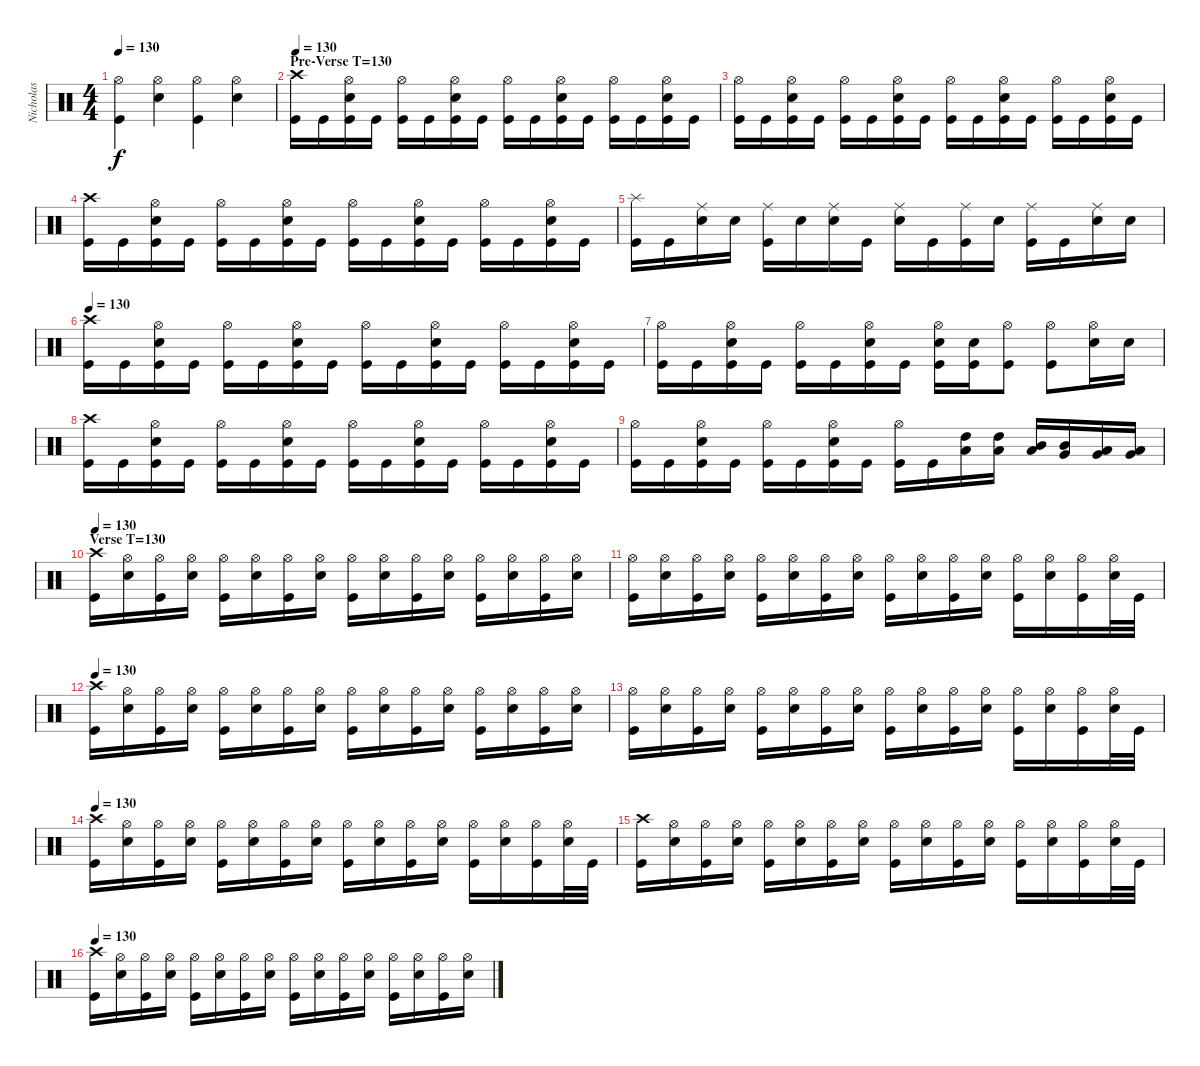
\track ("Nicholas" "Nicholas") {instrument percussion}
\staff {score}
\articulation defaults
\ts (4 4)
\tempo 130
\clef neutral
\ks c
("Hi-Hat (open)" "Kick (hit)").4{dy f} ("Hi-Hat (open)" "Electric Snare (hit)").4 ("Hi-Hat (open)" "Kick (hit)").4 ("Hi-Hat (open)" "Electric Snare (hit)").4 |
\section ("" "Pre-Verse T=130")
\tempo 130
("Crash high (hit)" "Kick (hit)").16 "Kick (hit)".16 ("Hi-Hat (open)" "Electric Snare (hit)" "Kick (hit)").16 "Kick (hit)".16 ("Hi-Hat (open)" "Kick (hit)").16 "Kick (hit)".16 ("Hi-Hat (open)" "Electric Snare (hit)" "Kick (hit)").16 "Kick (hit)".16 ("Hi-Hat (open)" "Kick (hit)").16 "Kick (hit)".16 ("Hi-Hat (open)" "Electric Snare (hit)" "Kick (hit)").16 "Kick (hit)".16 ("Hi-Hat (open)" "Kick (hit)").16 "Kick (hit)".16 ("Hi-Hat (open)" "Electric Snare (hit)" "Kick (hit)").16 "Kick (hit)".16 |
("Hi-Hat (open)" "Kick (hit)").16 "Kick (hit)".16 ("Hi-Hat (open)" "Electric Snare (hit)" "Kick (hit)").16 "Kick (hit)".16 ("Hi-Hat (open)" "Kick (hit)").16 "Kick (hit)".16 ("Hi-Hat (open)" "Electric Snare (hit)" "Kick (hit)").16 "Kick (hit)".16 ("Hi-Hat (open)" "Kick (hit)").16 "Kick (hit)".16 ("Hi-Hat (open)" "Electric Snare (hit)" "Kick (hit)").16 "Kick (hit)".16 ("Hi-Hat (open)" "Kick (hit)").16 "Kick (hit)".16 ("Hi-Hat (open)" "Electric Snare (hit)" "Kick (hit)").16 "Kick (hit)".16 |
("Crash high (hit)" "Kick (hit)").16 "Kick (hit)".16 ("Hi-Hat (open)" "Electric Snare (hit)" "Kick (hit)").16 "Kick (hit)".16 ("Hi-Hat (open)" "Kick (hit)").16 "Kick (hit)".16 ("Hi-Hat (open)" "Electric Snare (hit)" "Kick (hit)").16 "Kick (hit)".16 ("Hi-Hat (open)" "Kick (hit)").16 "Kick (hit)".16 ("Hi-Hat (open)" "Electric Snare (hit)" "Kick (hit)").16 "Kick (hit)".16 ("Hi-Hat (open)" "Kick (hit)").16 "Kick (hit)".16 ("Hi-Hat (open)" "Electric Snare (hit)" "Kick (hit)").16 "Kick (hit)".16 |
("Splash (hit)" "Kick (hit)").16 "Kick (hit)".16 ("Ride (middle)" "Electric Snare (hit)").16 "Electric Snare (hit)".16 ("Ride (middle)" "Kick (hit)").16 "Electric Snare (hit)".16 ("Ride (middle)" "Electric Snare (hit)").16 "Kick (hit)".16 ("Ride (middle)" "Electric Snare (hit)").16 "Kick (hit)".16 ("Ride (middle)" "Kick (hit)").16 "Electric Snare (hit)".16 ("Ride (middle)" "Kick (hit)").16 "Kick (hit)".16 ("Ride (middle)" "Electric Snare (hit)").16 "Electric Snare (hit)".16 |
\tempo 130
("Crash high (hit)" "Kick (hit)").16 "Kick (hit)".16 ("Hi-Hat (open)" "Electric Snare (hit)" "Kick (hit)").16 "Kick (hit)".16 ("Hi-Hat (open)" "Kick (hit)").16 "Kick (hit)".16 ("Hi-Hat (open)" "Electric Snare (hit)" "Kick (hit)").16 "Kick (hit)".16 ("Hi-Hat (open)" "Kick (hit)").16 "Kick (hit)".16 ("Hi-Hat (open)" "Electric Snare (hit)" "Kick (hit)").16 "Kick (hit)".16 ("Hi-Hat (open)" "Kick (hit)").16 "Kick (hit)".16 ("Hi-Hat (open)" "Electric Snare (hit)" "Kick (hit)").16 "Kick (hit)".16 |
("Hi-Hat (open)" "Kick (hit)").16 "Kick (hit)".16 ("Hi-Hat (open)" "Electric Snare (hit)" "Kick (hit)").16 "Kick (hit)".16 ("Hi-Hat (open)" "Kick (hit)").16 "Kick (hit)".16 ("Hi-Hat (open)" "Electric Snare (hit)" "Kick (hit)").16 "Kick (hit)".16 ("Hi-Hat (open)" "Electric Snare (hit)" "Kick (hit)").16 ("Electric Snare (hit)" "Kick (hit)").16 ("Hi-Hat (open)" "Kick (hit)").8 ("Hi-Hat (open)" "Kick (hit)").8 ("Hi-Hat (open)" "Electric Snare (hit)").16 "Electric Snare (hit)".16 |
("Crash high (hit)" "Kick (hit)").16 "Kick (hit)".16 ("Hi-Hat (open)" "Electric Snare (hit)" "Kick (hit)").16 "Kick (hit)".16 ("Hi-Hat (open)" "Kick (hit)").16 "Kick (hit)".16 ("Hi-Hat (open)" "Electric Snare (hit)" "Kick (hit)").16 "Kick (hit)".16 ("Hi-Hat (open)" "Kick (hit)").16 "Kick (hit)".16 ("Hi-Hat (open)" "Electric Snare (hit)" "Kick (hit)").16 "Kick (hit)".16 ("Hi-Hat (open)" "Kick (hit)").16 "Kick (hit)".16 ("Hi-Hat (open)" "Electric Snare (hit)" "Kick (hit)").16 "Kick (hit)".16 |
("Hi-Hat (open)" "Kick (hit)").16 "Kick (hit)".16 ("Hi-Hat (open)" "Electric Snare (hit)" "Kick (hit)").16 "Kick (hit)".16 ("Hi-Hat (open)" "Kick (hit)").16 "Kick (hit)".16 ("Hi-Hat (open)" "Electric Snare (hit)" "Kick (hit)").16 "Kick (hit)".16 ("Hi-Hat (open)" "Kick (hit)").16 "Kick (hit)".16 ("High Tom (hit)" "Low Tom (hit)").16{balance 13} ("High Tom (hit)" "Low Tom (hit)").16 ("Mid Tom (hit)" "Low Tom (hit)").16 ("Mid Tom (hit)" "Very Low Tom (hit)").16{balance 11} ("Low Tom (hit)" "Very Low Tom (hit)").16 ("Low Tom (hit)" "Very Low Tom (hit)").16 |
\section ("" "Verse T=130")
\tempo 130
("Crash high (hit)" "Kick (hit)").16 ("Hi-Hat (open)" "Electric Snare (hit)").16 ("Hi-Hat (open)" "Kick (hit)").16 ("Hi-Hat (open)" "Electric Snare (hit)").16 ("Hi-Hat (open)" "Kick (hit)").16 ("Hi-Hat (open)" "Electric Snare (hit)").16 ("Hi-Hat (open)" "Kick (hit)").16 ("Hi-Hat (open)" "Electric Snare (hit)").16 ("Hi-Hat (open)" "Kick (hit)").16 ("Hi-Hat (open)" "Electric Snare (hit)").16 ("Hi-Hat (open)" "Kick (hit)").16 ("Hi-Hat (open)" "Electric Snare (hit)").16 ("Hi-Hat (open)" "Kick (hit)").16 ("Hi-Hat (open)" "Electric Snare (hit)").16 ("Hi-Hat (open)" "Kick (hit)").16 ("Hi-Hat (open)" "Electric Snare (hit)").16 |
("Hi-Hat (open)" "Kick (hit)").16 ("Hi-Hat (open)" "Electric Snare (hit)").16 ("Hi-Hat (open)" "Kick (hit)").16 ("Hi-Hat (open)" "Electric Snare (hit)").16 ("Hi-Hat (open)" "Kick (hit)").16 ("Hi-Hat (open)" "Electric Snare (hit)").16 ("Hi-Hat (open)" "Kick (hit)").16 ("Hi-Hat (open)" "Electric Snare (hit)").16 ("Hi-Hat (open)" "Kick (hit)").16 ("Hi-Hat (open)" "Electric Snare (hit)").16 ("Hi-Hat (open)" "Kick (hit)").16 ("Hi-Hat (open)" "Electric Snare (hit)").16 ("Hi-Hat (open)" "Kick (hit)").16 ("Hi-Hat (open)" "Electric Snare (hit)").16 ("Hi-Hat (open)" "Kick (hit)").16 ("Hi-Hat (open)" "Electric Snare (hit)").32 "Kick (hit)".32 |
\tempo 130
("Crash high (hit)" "Kick (hit)").16 ("Hi-Hat (open)" "Electric Snare (hit)").16 ("Hi-Hat (open)" "Kick (hit)").16 ("Hi-Hat (open)" "Electric Snare (hit)").16 ("Hi-Hat (open)" "Kick (hit)").16 ("Hi-Hat (open)" "Electric Snare (hit)").16 ("Hi-Hat (open)" "Kick (hit)").16 ("Hi-Hat (open)" "Electric Snare (hit)").16 ("Hi-Hat (open)" "Kick (hit)").16 ("Hi-Hat (open)" "Electric Snare (hit)").16 ("Hi-Hat (open)" "Kick (hit)").16 ("Hi-Hat (open)" "Electric Snare (hit)").16 ("Hi-Hat (open)" "Kick (hit)").16 ("Hi-Hat (open)" "Electric Snare (hit)").16 ("Hi-Hat (open)" "Kick (hit)").16 ("Hi-Hat (open)" "Electric Snare (hit)").16 |
("Hi-Hat (open)" "Kick (hit)").16 ("Hi-Hat (open)" "Electric Snare (hit)").16 ("Hi-Hat (open)" "Kick (hit)").16 ("Hi-Hat (open)" "Electric Snare (hit)").16 ("Hi-Hat (open)" "Kick (hit)").16 ("Hi-Hat (open)" "Electric Snare (hit)").16 ("Hi-Hat (open)" "Kick (hit)").16 ("Hi-Hat (open)" "Electric Snare (hit)").16 ("Hi-Hat (open)" "Kick (hit)").16 ("Hi-Hat (open)" "Electric Snare (hit)").16 ("Hi-Hat (open)" "Kick (hit)").16 ("Hi-Hat (open)" "Electric Snare (hit)").16 ("Hi-Hat (open)" "Kick (hit)").16 ("Hi-Hat (open)" "Electric Snare (hit)").16 ("Hi-Hat (open)" "Kick (hit)").16 ("Hi-Hat (open)" "Electric Snare (hit)").32 "Kick (hit)".32 |
\tempo 130
("Crash high (hit)" "Kick (hit)").16 ("Hi-Hat (open)" "Electric Snare (hit)").16 ("Hi-Hat (open)" "Kick (hit)").16 ("Hi-Hat (open)" "Electric Snare (hit)").16 ("Hi-Hat (open)" "Kick (hit)").16 ("Hi-Hat (open)" "Electric Snare (hit)").16 ("Hi-Hat (open)" "Kick (hit)").16 ("Hi-Hat (open)" "Electric Snare (hit)").16 ("Hi-Hat (open)" "Kick (hit)").16 ("Hi-Hat (open)" "Electric Snare (hit)").16 ("Hi-Hat (open)" "Kick (hit)").16 ("Hi-Hat (open)" "Electric Snare (hit)").16 ("Hi-Hat (open)" "Kick (hit)").16 ("Hi-Hat (open)" "Electric Snare (hit)").16 ("Hi-Hat (open)" "Kick (hit)").16 ("Hi-Hat (open)" "Electric Snare (hit)").32 "Kick (hit)".32 |
("Crash high (hit)" "Kick (hit)").16 ("Hi-Hat (open)" "Electric Snare (hit)").16 ("Hi-Hat (open)" "Kick (hit)").16 ("Hi-Hat (open)" "Electric Snare (hit)").16 ("Hi-Hat (open)" "Kick (hit)").16 ("Hi-Hat (open)" "Electric Snare (hit)").16 ("Hi-Hat (open)" "Kick (hit)").16 ("Hi-Hat (open)" "Electric Snare (hit)").16 ("Hi-Hat (open)" "Kick (hit)").16 ("Hi-Hat (open)" "Electric Snare (hit)").16 ("Hi-Hat (open)" "Kick (hit)").16 ("Hi-Hat (open)" "Electric Snare (hit)").16 ("Hi-Hat (open)" "Kick (hit)").16 ("Hi-Hat (open)" "Electric Snare (hit)").16 ("Hi-Hat (open)" "Kick (hit)").16 ("Hi-Hat (open)" "Electric Snare (hit)").32 "Kick (hit)".32 |
\tempo 130
("Crash high (hit)" "Kick (hit)").16 ("Hi-Hat (open)" "Electric Snare (hit)").16 ("Hi-Hat (open)" "Kick (hit)").16 ("Hi-Hat (open)" "Electric Snare (hit)").16 ("Hi-Hat (open)" "Kick (hit)").16 ("Hi-Hat (open)" "Electric Snare (hit)").16 ("Hi-Hat (open)" "Kick (hit)").16 ("Hi-Hat (open)" "Electric Snare (hit)").16 ("Hi-Hat (open)" "Kick (hit)").16 ("Hi-Hat (open)" "Electric Snare (hit)").16 ("Hi-Hat (open)" "Kick (hit)").16 ("Hi-Hat (open)" "Electric Snare (hit)").16 ("Hi-Hat (open)" "Kick (hit)").16 ("Hi-Hat (open)" "Electric Snare (hit)").16 ("Hi-Hat (open)" "Kick (hit)").16 ("Hi-Hat (open)" "Electric Snare (hit)").16
